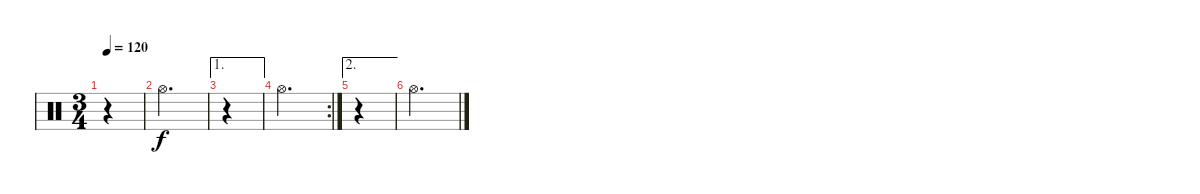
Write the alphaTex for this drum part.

\track "" {instrument percussion}
\staff {score}
\articulation defaults
\ts (3 4)
\tempo 120
\clef neutral
\ks c
r.4{dy f} |
"Hi-Hat (open)".2{d} |
\ae 1
r.4 |
\rc 2 "Hi-Hat (open)".2{d}
|
\ae 2
r.4 |
"Hi-Hat (open)".2{d}
